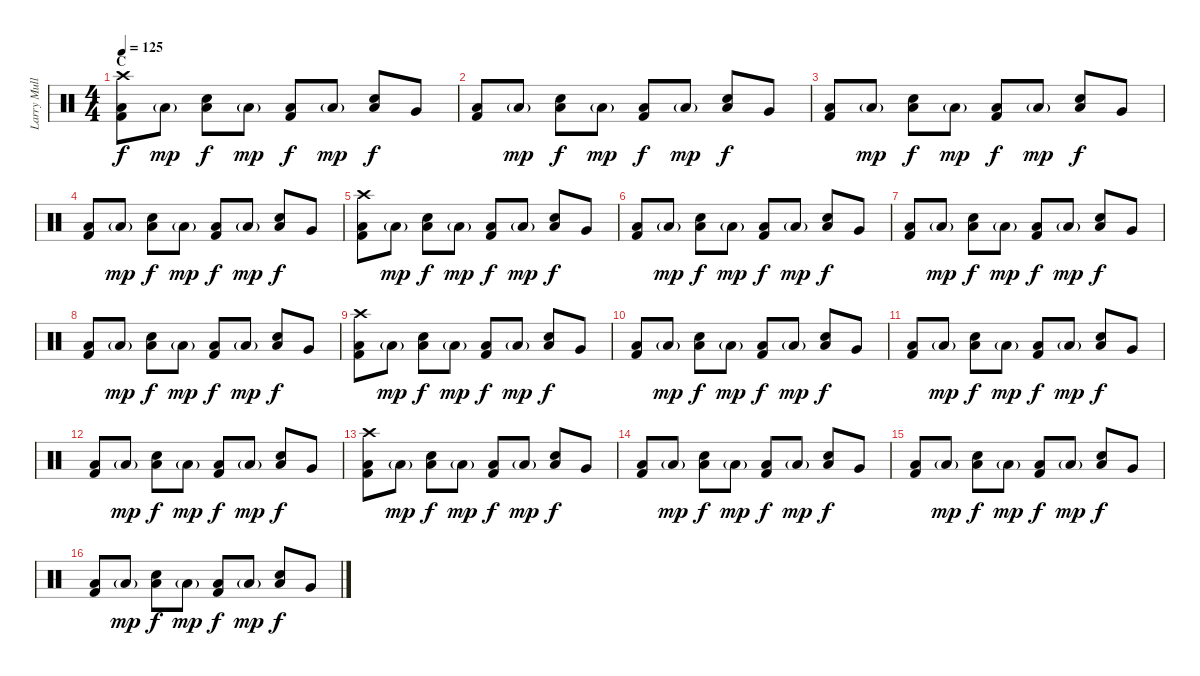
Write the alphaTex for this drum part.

\track ("Larry Mullen Jr" "Larry Mull") {instrument percussion}
\staff {score}
\articulation defaults
\ts (4 4)
\section ("" "C")
\tempo 125
\clef neutral
\ks c
("Crash high (hit)" "Kick (hit) 2" "Low Floor Tom (hit)").8{dy f} "Low Floor Tom (hit)"{g}.8{dy mp} ("Snare (hit) 2" "Low Floor Tom (hit)").8{dy f} "Low Floor Tom (hit)"{g}.8{dy mp} ("Kick (hit) 2" "Low Floor Tom (hit)").8{dy f} "Low Floor Tom (hit)"{g}.8{dy mp} ("Snare (hit) 2" "Low Floor Tom (hit)").8{dy f} "Very Low Tom (hit)".8 |
("Kick (hit) 2" "Low Floor Tom (hit)").8 "Low Floor Tom (hit)"{g}.8{dy mp} ("Snare (hit) 2" "Low Floor Tom (hit)").8{dy f} "Low Floor Tom (hit)"{g}.8{dy mp} ("Kick (hit) 2" "Low Floor Tom (hit)").8{dy f} "Low Floor Tom (hit)"{g}.8{dy mp} ("Snare (hit) 2" "Low Floor Tom (hit)").8{dy f} "Very Low Tom (hit)".8 |
("Kick (hit) 2" "Low Floor Tom (hit)").8 "Low Floor Tom (hit)"{g}.8{dy mp} ("Snare (hit) 2" "Low Floor Tom (hit)").8{dy f} "Low Floor Tom (hit)"{g}.8{dy mp} ("Kick (hit) 2" "Low Floor Tom (hit)").8{dy f} "Low Floor Tom (hit)"{g}.8{dy mp} ("Snare (hit) 2" "Low Floor Tom (hit)").8{dy f} "Very Low Tom (hit)".8 |
("Kick (hit) 2" "Low Floor Tom (hit)").8 "Low Floor Tom (hit)"{g}.8{dy mp} ("Snare (hit) 2" "Low Floor Tom (hit)").8{dy f} "Low Floor Tom (hit)"{g}.8{dy mp} ("Kick (hit) 2" "Low Floor Tom (hit)").8{dy f} "Low Floor Tom (hit)"{g}.8{dy mp} ("Snare (hit) 2" "Low Floor Tom (hit)").8{dy f} "Very Low Tom (hit)".8 |
("Crash high (hit)" "Kick (hit) 2" "Low Floor Tom (hit)").8 "Low Floor Tom (hit)"{g}.8{dy mp} ("Snare (hit) 2" "Low Floor Tom (hit)").8{dy f} "Low Floor Tom (hit)"{g}.8{dy mp} ("Kick (hit) 2" "Low Floor Tom (hit)").8{dy f} "Low Floor Tom (hit)"{g}.8{dy mp} ("Snare (hit) 2" "Low Floor Tom (hit)").8{dy f} "Very Low Tom (hit)".8 |
("Kick (hit) 2" "Low Floor Tom (hit)").8 "Low Floor Tom (hit)"{g}.8{dy mp} ("Snare (hit) 2" "Low Floor Tom (hit)").8{dy f} "Low Floor Tom (hit)"{g}.8{dy mp} ("Kick (hit) 2" "Low Floor Tom (hit)").8{dy f} "Low Floor Tom (hit)"{g}.8{dy mp} ("Snare (hit) 2" "Low Floor Tom (hit)").8{dy f} "Very Low Tom (hit)".8 |
("Kick (hit) 2" "Low Floor Tom (hit)").8 "Low Floor Tom (hit)"{g}.8{dy mp} ("Snare (hit) 2" "Low Floor Tom (hit)").8{dy f} "Low Floor Tom (hit)"{g}.8{dy mp} ("Kick (hit) 2" "Low Floor Tom (hit)").8{dy f} "Low Floor Tom (hit)"{g}.8{dy mp} ("Snare (hit) 2" "Low Floor Tom (hit)").8{dy f} "Very Low Tom (hit)".8 |
("Kick (hit) 2" "Low Floor Tom (hit)").8 "Low Floor Tom (hit)"{g}.8{dy mp} ("Snare (hit) 2" "Low Floor Tom (hit)").8{dy f} "Low Floor Tom (hit)"{g}.8{dy mp} ("Kick (hit) 2" "Low Floor Tom (hit)").8{dy f} "Low Floor Tom (hit)"{g}.8{dy mp} ("Snare (hit) 2" "Low Floor Tom (hit)").8{dy f} "Very Low Tom (hit)".8 |
("Crash high (hit)" "Kick (hit) 2" "Low Floor Tom (hit)").8 "Low Floor Tom (hit)"{g}.8{dy mp} ("Snare (hit) 2" "Low Floor Tom (hit)").8{dy f} "Low Floor Tom (hit)"{g}.8{dy mp} ("Kick (hit) 2" "Low Floor Tom (hit)").8{dy f} "Low Floor Tom (hit)"{g}.8{dy mp} ("Snare (hit) 2" "Low Floor Tom (hit)").8{dy f} "Very Low Tom (hit)".8 |
("Kick (hit) 2" "Low Floor Tom (hit)").8 "Low Floor Tom (hit)"{g}.8{dy mp} ("Snare (hit) 2" "Low Floor Tom (hit)").8{dy f} "Low Floor Tom (hit)"{g}.8{dy mp} ("Kick (hit) 2" "Low Floor Tom (hit)").8{dy f} "Low Floor Tom (hit)"{g}.8{dy mp} ("Snare (hit) 2" "Low Floor Tom (hit)").8{dy f} "Very Low Tom (hit)".8 |
("Kick (hit) 2" "Low Floor Tom (hit)").8 "Low Floor Tom (hit)"{g}.8{dy mp} ("Snare (hit) 2" "Low Floor Tom (hit)").8{dy f} "Low Floor Tom (hit)"{g}.8{dy mp} ("Kick (hit) 2" "Low Floor Tom (hit)").8{dy f} "Low Floor Tom (hit)"{g}.8{dy mp} ("Snare (hit) 2" "Low Floor Tom (hit)").8{dy f} "Very Low Tom (hit)".8 |
("Kick (hit) 2" "Low Floor Tom (hit)").8 "Low Floor Tom (hit)"{g}.8{dy mp} ("Snare (hit) 2" "Low Floor Tom (hit)").8{dy f} "Low Floor Tom (hit)"{g}.8{dy mp} ("Kick (hit) 2" "Low Floor Tom (hit)").8{dy f} "Low Floor Tom (hit)"{g}.8{dy mp} ("Snare (hit) 2" "Low Floor Tom (hit)").8{dy f} "Very Low Tom (hit)".8 |
("Crash high (hit)" "Kick (hit) 2" "Low Floor Tom (hit)").8 "Low Floor Tom (hit)"{g}.8{dy mp} ("Snare (hit) 2" "Low Floor Tom (hit)").8{dy f} "Low Floor Tom (hit)"{g}.8{dy mp} ("Kick (hit) 2" "Low Floor Tom (hit)").8{dy f} "Low Floor Tom (hit)"{g}.8{dy mp} ("Snare (hit) 2" "Low Floor Tom (hit)").8{dy f} "Very Low Tom (hit)".8 |
("Kick (hit) 2" "Low Floor Tom (hit)").8 "Low Floor Tom (hit)"{g}.8{dy mp} ("Snare (hit) 2" "Low Floor Tom (hit)").8{dy f} "Low Floor Tom (hit)"{g}.8{dy mp} ("Kick (hit) 2" "Low Floor Tom (hit)").8{dy f} "Low Floor Tom (hit)"{g}.8{dy mp} ("Snare (hit) 2" "Low Floor Tom (hit)").8{dy f} "Very Low Tom (hit)".8 |
("Kick (hit) 2" "Low Floor Tom (hit)").8 "Low Floor Tom (hit)"{g}.8{dy mp} ("Snare (hit) 2" "Low Floor Tom (hit)").8{dy f} "Low Floor Tom (hit)"{g}.8{dy mp} ("Kick (hit) 2" "Low Floor Tom (hit)").8{dy f} "Low Floor Tom (hit)"{g}.8{dy mp} ("Snare (hit) 2" "Low Floor Tom (hit)").8{dy f} "Very Low Tom (hit)".8 |
("Kick (hit) 2" "Low Floor Tom (hit)").8 "Low Floor Tom (hit)"{g}.8{dy mp} ("Snare (hit) 2" "Low Floor Tom (hit)").8{dy f} "Low Floor Tom (hit)"{g}.8{dy mp} ("Kick (hit) 2" "Low Floor Tom (hit)").8{dy f} "Low Floor Tom (hit)"{g}.8{dy mp} ("Snare (hit) 2" "Low Floor Tom (hit)").8{dy f} "Very Low Tom (hit)".8
